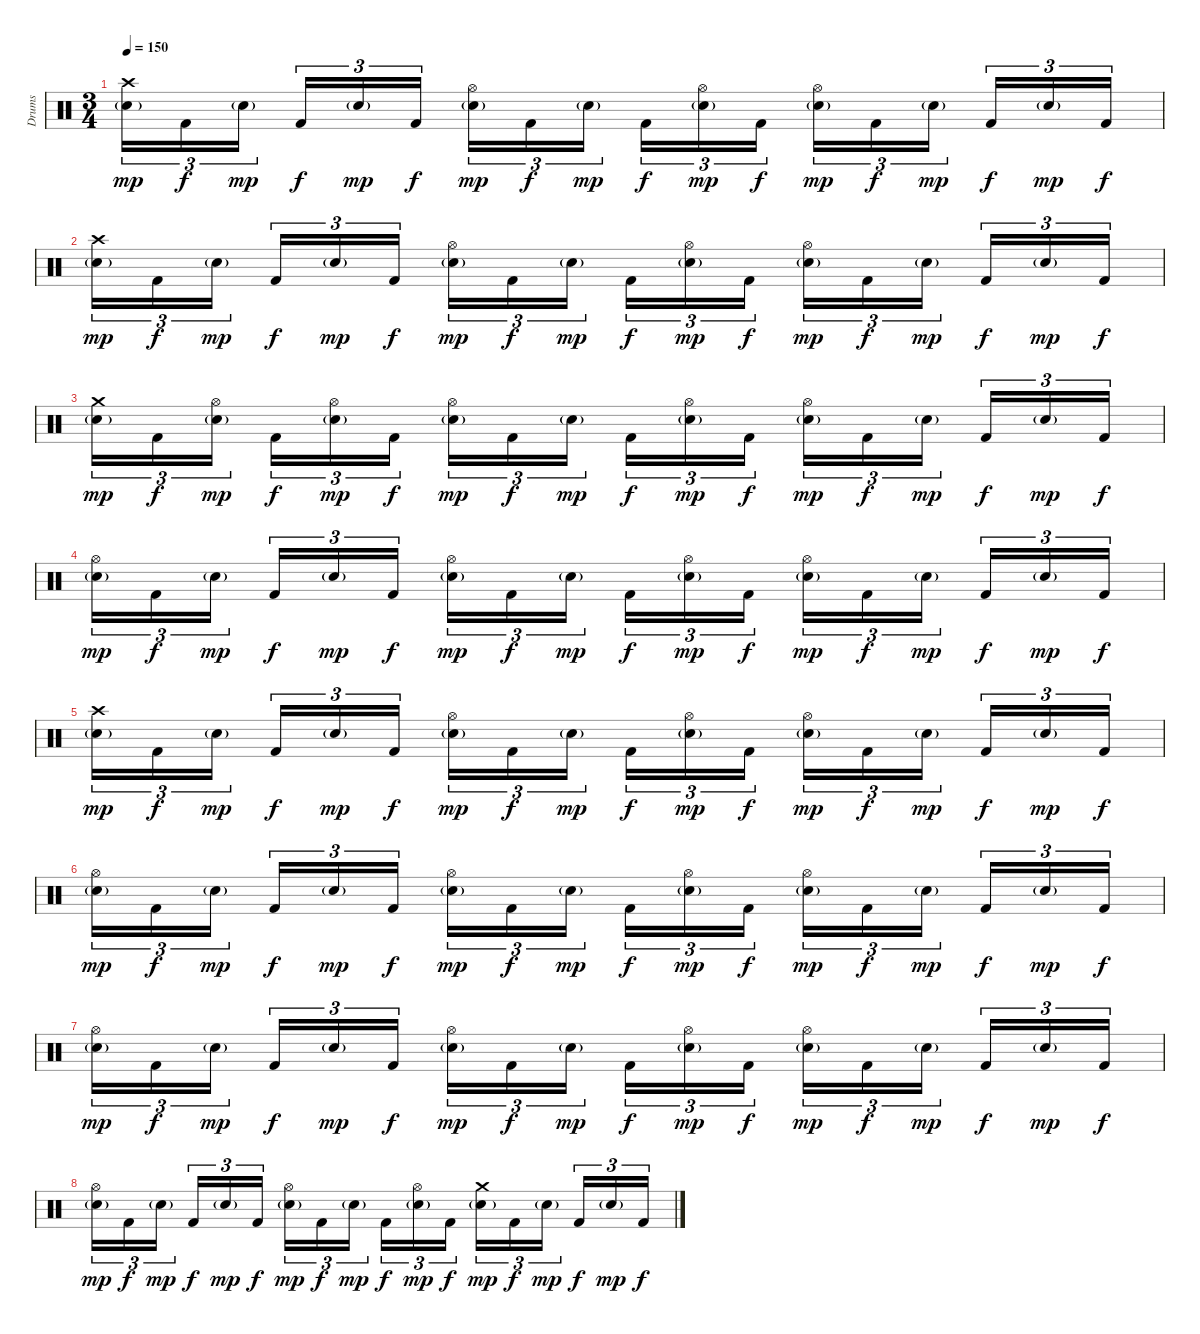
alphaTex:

\track ("Drums" "Drums") {instrument percussion}
\staff {score}
\articulation defaults
\ts (3 4)
\tempo 150
\clef neutral
\ks c
("Electric Snare (hit)"{g} "Crash high (hit)").16{tu (3 2) dy mp} "Kick (hit) 2".16{tu (3 2) dy f} "Electric Snare (hit)"{g}.16{tu (3 2) dy mp beam splitsecondary} "Kick (hit) 2".16{tu (3 2) dy f} "Electric Snare (hit)"{g}.16{tu (3 2) dy mp} "Kick (hit) 2".16{tu (3 2) dy f} ("Electric Snare (hit)"{g} "Hi-Hat (open)").16{tu (3 2) dy mp} "Kick (hit) 2".16{tu (3 2) dy f} "Electric Snare (hit)"{g}.16{tu (3 2) dy mp beam splitsecondary} "Kick (hit) 2".16{tu (3 2) dy f} ("Electric Snare (hit)"{g} "Hi-Hat (open)").16{tu (3 2) dy mp} "Kick (hit) 2".16{tu (3 2) dy f} ("Electric Snare (hit)"{g} "Hi-Hat (open)").16{tu (3 2) dy mp} "Kick (hit) 2".16{tu (3 2) dy f} "Electric Snare (hit)"{g}.16{tu (3 2) dy mp beam splitsecondary} "Kick (hit) 2".16{tu (3 2) dy f} "Electric Snare (hit)"{g}.16{tu (3 2) dy mp} "Kick (hit) 2".16{tu (3 2) dy f} |
("Electric Snare (hit)"{g} "Crash high (hit)").16{tu (3 2) dy mp} "Kick (hit) 2".16{tu (3 2) dy f} "Electric Snare (hit)"{g}.16{tu (3 2) dy mp beam splitsecondary} "Kick (hit) 2".16{tu (3 2) dy f} "Electric Snare (hit)"{g}.16{tu (3 2) dy mp} "Kick (hit) 2".16{tu (3 2) dy f} ("Electric Snare (hit)"{g} "Hi-Hat (open)").16{tu (3 2) dy mp} "Kick (hit) 2".16{tu (3 2) dy f} "Electric Snare (hit)"{g}.16{tu (3 2) dy mp beam splitsecondary} "Kick (hit) 2".16{tu (3 2) dy f} ("Electric Snare (hit)"{g} "Hi-Hat (open)").16{tu (3 2) dy mp} "Kick (hit) 2".16{tu (3 2) dy f} ("Electric Snare (hit)"{g} "Hi-Hat (open)").16{tu (3 2) dy mp} "Kick (hit) 2".16{tu (3 2) dy f} "Electric Snare (hit)"{g}.16{tu (3 2) dy mp beam splitsecondary} "Kick (hit) 2".16{tu (3 2) dy f} "Electric Snare (hit)"{g}.16{tu (3 2) dy mp} "Kick (hit) 2".16{tu (3 2) dy f} |
("Electric Snare (hit)"{g} "Crash medium (hit)").16{tu (3 2) dy mp} "Kick (hit) 2".16{tu (3 2) dy f} ("Electric Snare (hit)"{g} "Hi-Hat (open)").16{tu (3 2) dy mp beam splitsecondary} "Kick (hit) 2".16{tu (3 2) dy f} ("Electric Snare (hit)"{g} "Hi-Hat (open)").16{tu (3 2) dy mp} "Kick (hit) 2".16{tu (3 2) dy f} ("Electric Snare (hit)"{g} "Hi-Hat (open)").16{tu (3 2) dy mp} "Kick (hit) 2".16{tu (3 2) dy f} "Electric Snare (hit)"{g}.16{tu (3 2) dy mp beam splitsecondary} "Kick (hit) 2".16{tu (3 2) dy f} ("Electric Snare (hit)"{g} "Hi-Hat (open)").16{tu (3 2) dy mp} "Kick (hit) 2".16{tu (3 2) dy f} ("Electric Snare (hit)"{g} "Hi-Hat (open)").16{tu (3 2) dy mp} "Kick (hit) 2".16{tu (3 2) dy f} "Electric Snare (hit)"{g}.16{tu (3 2) dy mp beam splitsecondary} "Kick (hit) 2".16{tu (3 2) dy f} "Electric Snare (hit)"{g}.16{tu (3 2) dy mp} "Kick (hit) 2".16{tu (3 2) dy f} |
("Electric Snare (hit)"{g} "Hi-Hat (open)").16{tu (3 2) dy mp} "Kick (hit) 2".16{tu (3 2) dy f} "Electric Snare (hit)"{g}.16{tu (3 2) dy mp beam splitsecondary} "Kick (hit) 2".16{tu (3 2) dy f} "Electric Snare (hit)"{g}.16{tu (3 2) dy mp} "Kick (hit) 2".16{tu (3 2) dy f} ("Electric Snare (hit)"{g} "Hi-Hat (open)").16{tu (3 2) dy mp} "Kick (hit) 2".16{tu (3 2) dy f} "Electric Snare (hit)"{g}.16{tu (3 2) dy mp beam splitsecondary} "Kick (hit) 2".16{tu (3 2) dy f} ("Electric Snare (hit)"{g} "Hi-Hat (open)").16{tu (3 2) dy mp} "Kick (hit) 2".16{tu (3 2) dy f} ("Electric Snare (hit)"{g} "Hi-Hat (open)").16{tu (3 2) dy mp} "Kick (hit) 2".16{tu (3 2) dy f} "Electric Snare (hit)"{g}.16{tu (3 2) dy mp beam splitsecondary} "Kick (hit) 2".16{tu (3 2) dy f} "Electric Snare (hit)"{g}.16{tu (3 2) dy mp} "Kick (hit) 2".16{tu (3 2) dy f} |
("Electric Snare (hit)"{g} "Crash high (hit)").16{tu (3 2) dy mp} "Kick (hit) 2".16{tu (3 2) dy f} "Electric Snare (hit)"{g}.16{tu (3 2) dy mp beam splitsecondary} "Kick (hit) 2".16{tu (3 2) dy f} "Electric Snare (hit)"{g}.16{tu (3 2) dy mp} "Kick (hit) 2".16{tu (3 2) dy f} ("Electric Snare (hit)"{g} "Hi-Hat (open)").16{tu (3 2) dy mp} "Kick (hit) 2".16{tu (3 2) dy f} "Electric Snare (hit)"{g}.16{tu (3 2) dy mp beam splitsecondary} "Kick (hit) 2".16{tu (3 2) dy f} ("Electric Snare (hit)"{g} "Hi-Hat (open)").16{tu (3 2) dy mp} "Kick (hit) 2".16{tu (3 2) dy f} ("Electric Snare (hit)"{g} "Hi-Hat (open)").16{tu (3 2) dy mp} "Kick (hit) 2".16{tu (3 2) dy f} "Electric Snare (hit)"{g}.16{tu (3 2) dy mp beam splitsecondary} "Kick (hit) 2".16{tu (3 2) dy f} "Electric Snare (hit)"{g}.16{tu (3 2) dy mp} "Kick (hit) 2".16{tu (3 2) dy f} |
("Electric Snare (hit)"{g} "Hi-Hat (open)").16{tu (3 2) dy mp} "Kick (hit) 2".16{tu (3 2) dy f} "Electric Snare (hit)"{g}.16{tu (3 2) dy mp beam splitsecondary} "Kick (hit) 2".16{tu (3 2) dy f} "Electric Snare (hit)"{g}.16{tu (3 2) dy mp} "Kick (hit) 2".16{tu (3 2) dy f} ("Electric Snare (hit)"{g} "Hi-Hat (open)").16{tu (3 2) dy mp} "Kick (hit) 2".16{tu (3 2) dy f} "Electric Snare (hit)"{g}.16{tu (3 2) dy mp beam splitsecondary} "Kick (hit) 2".16{tu (3 2) dy f} ("Electric Snare (hit)"{g} "Hi-Hat (open)").16{tu (3 2) dy mp} "Kick (hit) 2".16{tu (3 2) dy f} ("Electric Snare (hit)"{g} "Hi-Hat (open)").16{tu (3 2) dy mp} "Kick (hit) 2".16{tu (3 2) dy f} "Electric Snare (hit)"{g}.16{tu (3 2) dy mp beam splitsecondary} "Kick (hit) 2".16{tu (3 2) dy f} "Electric Snare (hit)"{g}.16{tu (3 2) dy mp} "Kick (hit) 2".16{tu (3 2) dy f} |
("Electric Snare (hit)"{g} "Hi-Hat (open)").16{tu (3 2) dy mp} "Kick (hit) 2".16{tu (3 2) dy f} "Electric Snare (hit)"{g}.16{tu (3 2) dy mp beam splitsecondary} "Kick (hit) 2".16{tu (3 2) dy f} "Electric Snare (hit)"{g}.16{tu (3 2) dy mp} "Kick (hit) 2".16{tu (3 2) dy f} ("Electric Snare (hit)"{g} "Hi-Hat (open)").16{tu (3 2) dy mp} "Kick (hit) 2".16{tu (3 2) dy f} "Electric Snare (hit)"{g}.16{tu (3 2) dy mp beam splitsecondary} "Kick (hit) 2".16{tu (3 2) dy f} ("Electric Snare (hit)"{g} "Hi-Hat (open)").16{tu (3 2) dy mp} "Kick (hit) 2".16{tu (3 2) dy f} ("Electric Snare (hit)"{g} "Hi-Hat (open)").16{tu (3 2) dy mp} "Kick (hit) 2".16{tu (3 2) dy f} "Electric Snare (hit)"{g}.16{tu (3 2) dy mp beam splitsecondary} "Kick (hit) 2".16{tu (3 2) dy f} "Electric Snare (hit)"{g}.16{tu (3 2) dy mp} "Kick (hit) 2".16{tu (3 2) dy f} |
("Electric Snare (hit)"{g} "Hi-Hat (open)").16{tu (3 2) dy mp} "Kick (hit) 2".16{tu (3 2) dy f} "Electric Snare (hit)"{g}.16{tu (3 2) dy mp beam splitsecondary} "Kick (hit) 2".16{tu (3 2) dy f} "Electric Snare (hit)"{g}.16{tu (3 2) dy mp} "Kick (hit) 2".16{tu (3 2) dy f} ("Electric Snare (hit)"{g} "Hi-Hat (open)").16{tu (3 2) dy mp} "Kick (hit) 2".16{tu (3 2) dy f} "Electric Snare (hit)"{g}.16{tu (3 2) dy mp beam splitsecondary} "Kick (hit) 2".16{tu (3 2) dy f} ("Electric Snare (hit)"{g} "Hi-Hat (open)").16{tu (3 2) dy mp} "Kick (hit) 2".16{tu (3 2) dy f} ("Electric Snare (hit)"{g} "Crash medium (hit)").16{tu (3 2) dy mp} "Kick (hit) 2".16{tu (3 2) dy f} "Electric Snare (hit)"{g}.16{tu (3 2) dy mp beam splitsecondary} "Kick (hit) 2".16{tu (3 2) dy f} "Electric Snare (hit)"{g}.16{tu (3 2) dy mp} "Kick (hit) 2".16{tu (3 2) dy f}
